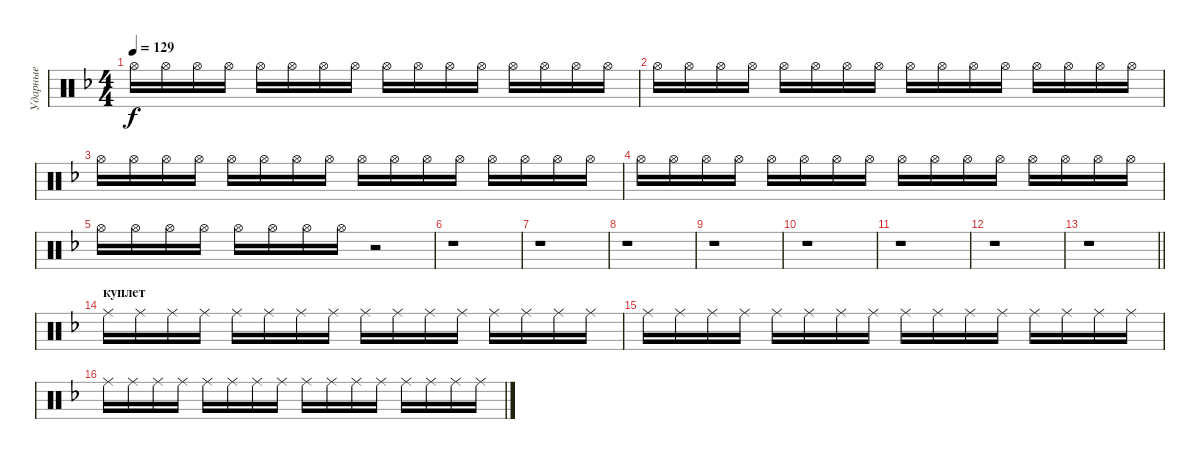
\track ("Ударные" "Ударные") {instrument percussion}
\staff {score}
\articulation defaults
\ts (4 4)
\tempo 129
\clef neutral
\ks dminor "Hi-Hat (open)".16{dy f} "Hi-Hat (open)".16 "Hi-Hat (open)".16 "Hi-Hat (open)".16 "Hi-Hat (open)".16 "Hi-Hat (open)".16 "Hi-Hat (open)".16 "Hi-Hat (open)".16 "Hi-Hat (open)".16 "Hi-Hat (open)".16 "Hi-Hat (open)".16 "Hi-Hat (open)".16 "Hi-Hat (open)".16 "Hi-Hat (open)".16 "Hi-Hat (open)".16 "Hi-Hat (open)".16
|
"Hi-Hat (open)".16 "Hi-Hat (open)".16 "Hi-Hat (open)".16 "Hi-Hat (open)".16 "Hi-Hat (open)".16 "Hi-Hat (open)".16 "Hi-Hat (open)".16 "Hi-Hat (open)".16 "Hi-Hat (open)".16 "Hi-Hat (open)".16 "Hi-Hat (open)".16 "Hi-Hat (open)".16 "Hi-Hat (open)".16 "Hi-Hat (open)".16 "Hi-Hat (open)".16 "Hi-Hat (open)".16 |
"Hi-Hat (open)".16 "Hi-Hat (open)".16 "Hi-Hat (open)".16 "Hi-Hat (open)".16 "Hi-Hat (open)".16 "Hi-Hat (open)".16 "Hi-Hat (open)".16 "Hi-Hat (open)".16 "Hi-Hat (open)".16 "Hi-Hat (open)".16 "Hi-Hat (open)".16 "Hi-Hat (open)".16 "Hi-Hat (open)".16 "Hi-Hat (open)".16 "Hi-Hat (open)".16 "Hi-Hat (open)".16 |
"Hi-Hat (open)".16 "Hi-Hat (open)".16 "Hi-Hat (open)".16 "Hi-Hat (open)".16 "Hi-Hat (open)".16 "Hi-Hat (open)".16 "Hi-Hat (open)".16 "Hi-Hat (open)".16 "Hi-Hat (open)".16 "Hi-Hat (open)".16 "Hi-Hat (open)".16 "Hi-Hat (open)".16 "Hi-Hat (open)".16 "Hi-Hat (open)".16 "Hi-Hat (open)".16 "Hi-Hat (open)".16 |
"Hi-Hat (open)".16 "Hi-Hat (open)".16 "Hi-Hat (open)".16 "Hi-Hat (open)".16 "Hi-Hat (open)".16 "Hi-Hat (open)".16 "Hi-Hat (open)".16 "Hi-Hat (open)".16 r.2 |
r.1 |
r.1 |
r.1 |
r.1 |
r.1 |
r.1 |
r.1 |
\barLineRight lightlight
r.1 |
\section ("" "куплет")
"Ride (middle)".16 "Ride (middle)".16 "Ride (middle)".16 "Ride (middle)".16 "Ride (middle)".16 "Ride (middle)".16 "Ride (middle)".16 "Ride (middle)".16 "Ride (middle)".16 "Ride (middle)".16 "Ride (middle)".16 "Ride (middle)".16 "Ride (middle)".16 "Ride (middle)".16 "Ride (middle)".16 "Ride (middle)".16 |
"Ride (middle)".16 "Ride (middle)".16 "Ride (middle)".16 "Ride (middle)".16 "Ride (middle)".16 "Ride (middle)".16 "Ride (middle)".16 "Ride (middle)".16 "Ride (middle)".16 "Ride (middle)".16 "Ride (middle)".16 "Ride (middle)".16 "Ride (middle)".16 "Ride (middle)".16 "Ride (middle)".16 "Ride (middle)".16 |
"Ride (middle)".16 "Ride (middle)".16 "Ride (middle)".16 "Ride (middle)".16 "Ride (middle)".16 "Ride (middle)".16 "Ride (middle)".16 "Ride (middle)".16 "Ride (middle)".16 "Ride (middle)".16 "Ride (middle)".16 "Ride (middle)".16 "Ride (middle)".16 "Ride (middle)".16 "Ride (middle)".16 "Ride (middle)".16
